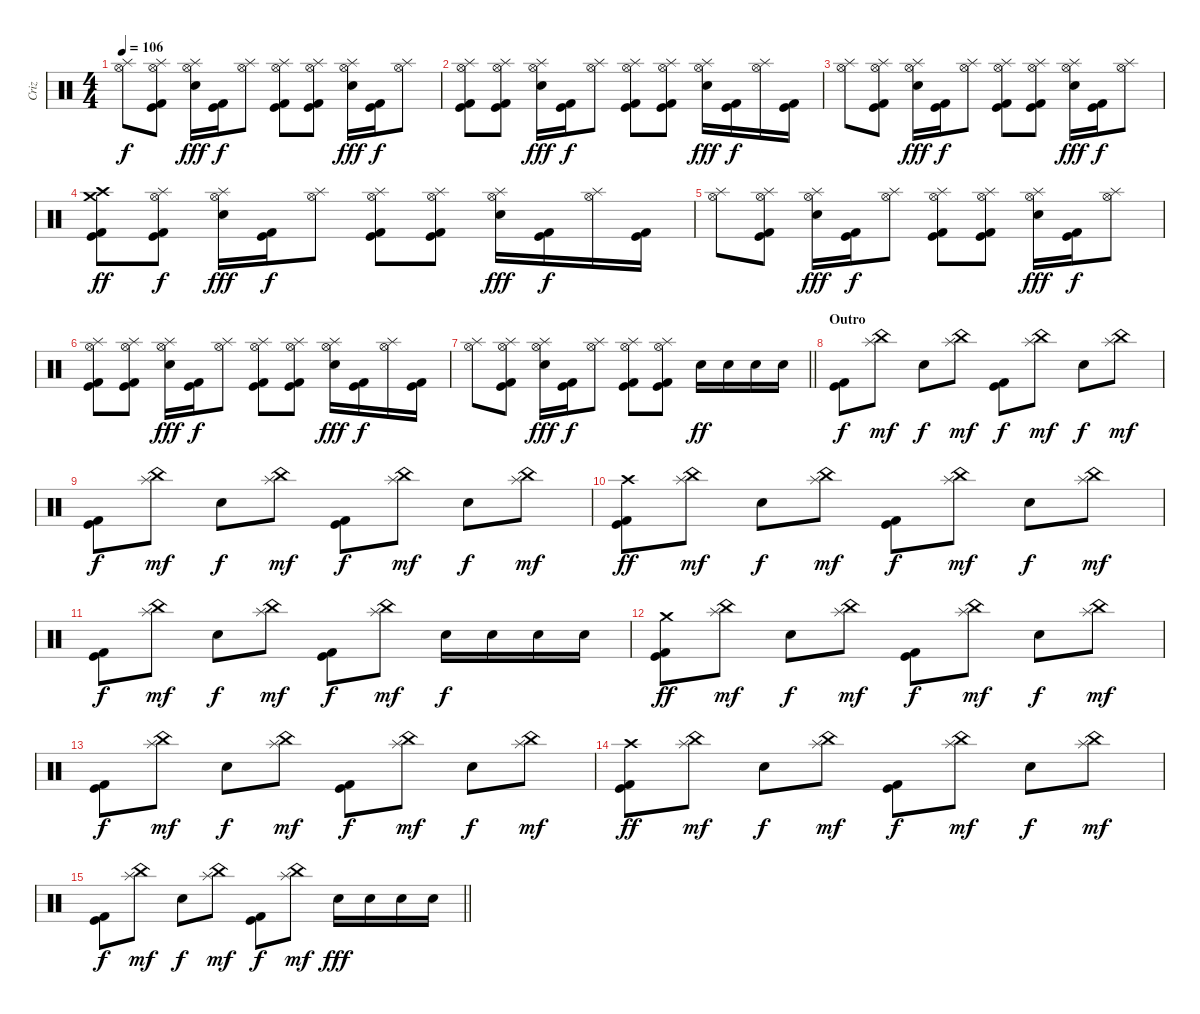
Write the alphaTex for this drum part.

\track ("Criz" "Criz") {instrument percussion}
\staff {score}
\articulation defaults
\ts (4 4)
\tempo 106
\clef neutral
\ks c
("Splash (hit)" "Hi-Hat (open)").8{dy f} ("Splash (hit)" "Hi-Hat (open)" "Kick (hit)" "Kick (hit) 2").8 ("Splash (hit)" "Hi-Hat (open)" "Snare (hit) 2").16{dy fff} ("Kick (hit)" "Kick (hit) 2").16{dy f} ("Splash (hit)" "Hi-Hat (open)").8 ("Splash (hit)" "Hi-Hat (open)" "Kick (hit)" "Kick (hit) 2").8 ("Splash (hit)" "Hi-Hat (open)" "Kick (hit)" "Kick (hit) 2").8 ("Splash (hit)" "Hi-Hat (open)" "Snare (hit) 2").16{dy fff} ("Kick (hit)" "Kick (hit) 2").16{dy f} ("Splash (hit)" "Hi-Hat (open)").8 |
("Splash (hit)" "Hi-Hat (open)" "Kick (hit)" "Kick (hit) 2").8 ("Splash (hit)" "Hi-Hat (open)" "Kick (hit)" "Kick (hit) 2").8 ("Splash (hit)" "Hi-Hat (open)" "Snare (hit) 2").16{dy fff} ("Kick (hit)" "Kick (hit) 2").16{dy f} ("Splash (hit)" "Hi-Hat (open)").8 ("Splash (hit)" "Hi-Hat (open)" "Kick (hit)" "Kick (hit) 2").8 ("Splash (hit)" "Hi-Hat (open)" "Kick (hit)" "Kick (hit) 2").8 ("Splash (hit)" "Hi-Hat (open)" "Snare (hit) 2").16{dy fff} ("Kick (hit)" "Kick (hit) 2").16{dy f} ("Splash (hit)" "Hi-Hat (open)").16 ("Kick (hit)" "Kick (hit) 2").16 |
("Splash (hit)" "Hi-Hat (open)").8 ("Splash (hit)" "Hi-Hat (open)" "Kick (hit)" "Kick (hit) 2").8 ("Splash (hit)" "Hi-Hat (open)" "Snare (hit) 2").16{dy fff} ("Kick (hit)" "Kick (hit) 2").16{dy f} ("Splash (hit)" "Hi-Hat (open)").8 ("Splash (hit)" "Hi-Hat (open)" "Kick (hit)" "Kick (hit) 2").8 ("Splash (hit)" "Hi-Hat (open)" "Kick (hit)" "Kick (hit) 2").8 ("Splash (hit)" "Hi-Hat (open)" "Snare (hit) 2").16{dy fff} ("Kick (hit)" "Kick (hit) 2").16{dy f} ("Splash (hit)" "Hi-Hat (open)").8 |
("Crash high (hit)" "Crash medium (hit)" "Kick (hit)" "Kick (hit) 2").8{dy ff} ("Splash (hit)" "Hi-Hat (open)" "Kick (hit)" "Kick (hit) 2").8{dy f} ("Splash (hit)" "Hi-Hat (open)" "Snare (hit) 2").16{dy fff} ("Kick (hit)" "Kick (hit) 2").16{dy f} ("Splash (hit)" "Hi-Hat (open)").8 ("Splash (hit)" "Hi-Hat (open)" "Kick (hit)" "Kick (hit) 2").8 ("Splash (hit)" "Hi-Hat (open)" "Kick (hit)" "Kick (hit) 2").8 ("Splash (hit)" "Hi-Hat (open)" "Snare (hit) 2").16{dy fff} ("Kick (hit)" "Kick (hit) 2").16{dy f} ("Splash (hit)" "Hi-Hat (open)").16 ("Kick (hit)" "Kick (hit) 2").16 |
("Splash (hit)" "Hi-Hat (open)").8 ("Splash (hit)" "Hi-Hat (open)" "Kick (hit)" "Kick (hit) 2").8 ("Splash (hit)" "Hi-Hat (open)" "Snare (hit) 2").16{dy fff} ("Kick (hit)" "Kick (hit) 2").16{dy f} ("Splash (hit)" "Hi-Hat (open)").8 ("Splash (hit)" "Hi-Hat (open)" "Kick (hit)" "Kick (hit) 2").8 ("Splash (hit)" "Hi-Hat (open)" "Kick (hit)" "Kick (hit) 2").8 ("Splash (hit)" "Hi-Hat (open)" "Snare (hit) 2").16{dy fff} ("Kick (hit)" "Kick (hit) 2").16{dy f} ("Splash (hit)" "Hi-Hat (open)").8 |
("Splash (hit)" "Hi-Hat (open)" "Kick (hit)" "Kick (hit) 2").8 ("Splash (hit)" "Hi-Hat (open)" "Kick (hit)" "Kick (hit) 2").8 ("Splash (hit)" "Hi-Hat (open)" "Snare (hit) 2").16{dy fff} ("Kick (hit)" "Kick (hit) 2").16{dy f} ("Splash (hit)" "Hi-Hat (open)").8 ("Splash (hit)" "Hi-Hat (open)" "Kick (hit)" "Kick (hit) 2").8 ("Splash (hit)" "Hi-Hat (open)" "Kick (hit)" "Kick (hit) 2").8 ("Splash (hit)" "Hi-Hat (open)" "Snare (hit) 2").16{dy fff} ("Kick (hit)" "Kick (hit) 2").16{dy f} ("Splash (hit)" "Hi-Hat (open)").16 ("Kick (hit)" "Kick (hit) 2").16 |
\barLineRight lightlight
("Splash (hit)" "Hi-Hat (open)").8 ("Splash (hit)" "Hi-Hat (open)" "Kick (hit)" "Kick (hit) 2").8 ("Splash (hit)" "Hi-Hat (open)" "Snare (hit) 2").16{dy fff} ("Kick (hit)" "Kick (hit) 2").16{dy f} ("Splash (hit)" "Hi-Hat (open)").8 ("Splash (hit)" "Hi-Hat (open)" "Kick (hit)" "Kick (hit) 2").8 ("Splash (hit)" "Hi-Hat (open)" "Kick (hit)" "Kick (hit) 2").8 "Snare (hit) 2".16{dy ff} "Snare (hit) 2".16 "Snare (hit) 2".16 "Snare (hit) 2".16 |
\section ("" "Outro")
("Kick (hit)" "Kick (hit) 2").8{dy f} ("Splash (hit)" "China (hit)").8{dy mf} "Snare (hit) 2".8{dy f} ("Splash (hit)" "China (hit)").8{dy mf} ("Kick (hit)" "Kick (hit) 2").8{dy f} ("Splash (hit)" "China (hit)").8{dy mf} "Snare (hit) 2".8{dy f} ("Splash (hit)" "China (hit)").8{dy mf} |
("Kick (hit)" "Kick (hit) 2").8{dy f} ("Splash (hit)" "China (hit)").8{dy mf} "Snare (hit) 2".8{dy f} ("Splash (hit)" "China (hit)").8{dy mf} ("Kick (hit)" "Kick (hit) 2").8{dy f} ("Splash (hit)" "China (hit)").8{dy mf} "Snare (hit) 2".8{dy f} ("Splash (hit)" "China (hit)").8{dy mf} |
("Crash high (hit)" "Kick (hit)" "Kick (hit) 2").8{dy ff} ("Splash (hit)" "China (hit)").8{dy mf} "Snare (hit) 2".8{dy f} ("Splash (hit)" "China (hit)").8{dy mf} ("Kick (hit)" "Kick (hit) 2").8{dy f} ("Splash (hit)" "China (hit)").8{dy mf} "Snare (hit) 2".8{dy f} ("Splash (hit)" "China (hit)").8{dy mf} |
("Kick (hit)" "Kick (hit) 2").8{dy f} ("Splash (hit)" "China (hit)").8{dy mf} "Snare (hit) 2".8{dy f} ("Splash (hit)" "China (hit)").8{dy mf} ("Kick (hit)" "Kick (hit) 2").8{dy f} ("Splash (hit)" "China (hit)").8{dy mf} "Snare (hit) 2".16{dy f} "Snare (hit) 2".16 "Snare (hit) 2".16 "Snare (hit) 2".16 |
("Crash medium (hit)" "Kick (hit)" "Kick (hit) 2").8{dy ff} ("Splash (hit)" "China (hit)").8{dy mf} "Snare (hit) 2".8{dy f} ("Splash (hit)" "China (hit)").8{dy mf} ("Kick (hit)" "Kick (hit) 2").8{dy f} ("Splash (hit)" "China (hit)").8{dy mf} "Snare (hit) 2".8{dy f} ("Splash (hit)" "China (hit)").8{dy mf} |
("Kick (hit)" "Kick (hit) 2").8{dy f} ("Splash (hit)" "China (hit)").8{dy mf} "Snare (hit) 2".8{dy f} ("Splash (hit)" "China (hit)").8{dy mf} ("Kick (hit)" "Kick (hit) 2").8{dy f} ("Splash (hit)" "China (hit)").8{dy mf} "Snare (hit) 2".8{dy f} ("Splash (hit)" "China (hit)").8{dy mf} |
("Crash high (hit)" "Kick (hit)" "Kick (hit) 2").8{dy ff} ("Splash (hit)" "China (hit)").8{dy mf} "Snare (hit) 2".8{dy f} ("Splash (hit)" "China (hit)").8{dy mf} ("Kick (hit)" "Kick (hit) 2").8{dy f} ("Splash (hit)" "China (hit)").8{dy mf} "Snare (hit) 2".8{dy f} ("Splash (hit)" "China (hit)").8{dy mf} |
\barLineRight lightlight
("Kick (hit)" "Kick (hit) 2").8{dy f} ("Splash (hit)" "China (hit)").8{dy mf} "Snare (hit) 2".8{dy f} ("Splash (hit)" "China (hit)").8{dy mf} ("Kick (hit)" "Kick (hit) 2").8{dy f} ("Splash (hit)" "China (hit)").8{dy mf} "Snare (hit) 2".16{dy fff volume 16} "Snare (hit) 2".16 "Snare (hit) 2".16 "Snare (hit) 2".16
